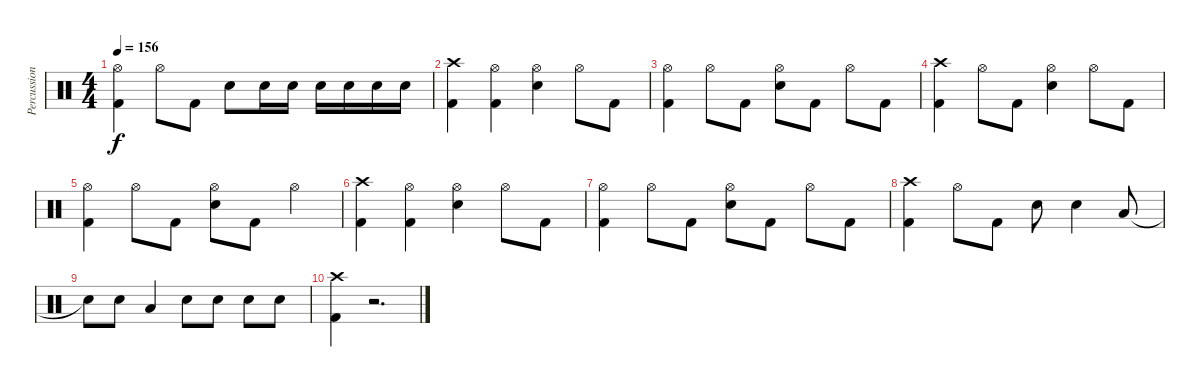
\track ("Percussions" "Percussion") {instrument percussion}
\staff {score}
\articulation defaults
\ts (4 4)
\tempo 156
\clef neutral
\ks c
("Hi-Hat (open)" "Kick (hit) 2").4{dy f} "Hi-Hat (open)".8 "Kick (hit) 2".8 "Electric Snare (hit)".8 "Electric Snare (hit)".16 "Electric Snare (hit)".16 "Electric Snare (hit)".16 "Electric Snare (hit)".16 "Electric Snare (hit)".16 "Electric Snare (hit)".16 |
("Crash high (hit)" "Kick (hit) 2").4 ("Hi-Hat (open)" "Kick (hit) 2").4 ("Hi-Hat (open)" "Electric Snare (hit)").4 "Hi-Hat (open)".8 "Kick (hit) 2".8 |
("Hi-Hat (open)" "Kick (hit) 2").4 "Hi-Hat (open)".8 "Kick (hit) 2".8 ("Hi-Hat (open)" "Electric Snare (hit)").8 "Kick (hit) 2".8 "Hi-Hat (open)".8 "Kick (hit) 2".8 |
("Crash high (hit)" "Kick (hit) 2").4 "Hi-Hat (open)".8 "Kick (hit) 2".8 ("Hi-Hat (open)" "Electric Snare (hit)").4 "Hi-Hat (open)".8 "Kick (hit) 2".8 |
("Hi-Hat (open)" "Kick (hit) 2").4 "Hi-Hat (open)".8 "Kick (hit) 2".8 ("Hi-Hat (open)" "Electric Snare (hit)").8 "Kick (hit) 2".8 "Hi-Hat (open)".4 |
("Crash high (hit)" "Kick (hit) 2").4 ("Hi-Hat (open)" "Kick (hit) 2").4 ("Hi-Hat (open)" "Electric Snare (hit)").4 "Hi-Hat (open)".8 "Kick (hit) 2".8 |
("Hi-Hat (open)" "Kick (hit) 2").4 "Hi-Hat (open)".8 "Kick (hit) 2".8 ("Hi-Hat (open)" "Electric Snare (hit)").8 "Kick (hit) 2".8 "Hi-Hat (open)".8 "Kick (hit) 2".8 |
("Crash high (hit)" "Kick (hit) 2").4 "Hi-Hat (open)".8 "Kick (hit) 2".8 "Electric Snare (hit)".8 "Electric Snare (hit)".4 "Low Tom (hit)".8 |
"Snare (hit)"{t}.8 "Electric Snare (hit)".8 "Low Tom (hit)".4 "Electric Snare (hit)".8 "Electric Snare (hit)".8 "Electric Snare (hit)".8 "Electric Snare (hit)".8 |
("Crash high (hit)" "Kick (hit) 2").4 r.2{d}
